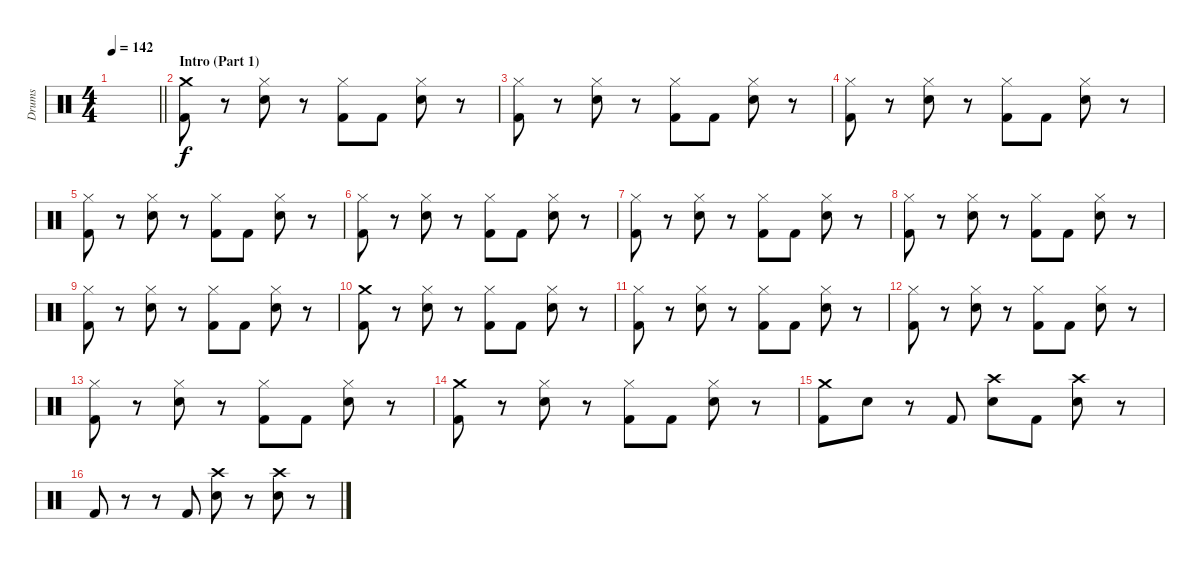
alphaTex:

\track ("Drums" "Drums") {instrument percussion}
\staff {score}
\articulation defaults
\ts (4 4)
\tempo 142
\clef neutral
\barLineRight lightlight
\ks c
|
\section ("" "Intro (Part 1)")
("Crash medium (hit)" "Kick (hit) 2").8 r.8 ("Hi-Hat (closed)" "Electric Snare (hit)").8 r.8 ("Hi-Hat (closed)" "Kick (hit) 2").8 "Kick (hit) 2".8 ("Hi-Hat (closed)" "Electric Snare (hit)").8 r.8 |
("Hi-Hat (closed)" "Kick (hit) 2").8 r.8 ("Hi-Hat (closed)" "Electric Snare (hit)").8 r.8 ("Hi-Hat (closed)" "Kick (hit) 2").8 "Kick (hit) 2".8 ("Hi-Hat (closed)" "Electric Snare (hit)").8 r.8 |
("Hi-Hat (closed)" "Kick (hit) 2").8 r.8 ("Hi-Hat (closed)" "Electric Snare (hit)").8 r.8 ("Hi-Hat (closed)" "Kick (hit) 2").8 "Kick (hit) 2".8 ("Hi-Hat (closed)" "Electric Snare (hit)").8 r.8 |
("Hi-Hat (closed)" "Kick (hit) 2").8 r.8 ("Hi-Hat (closed)" "Electric Snare (hit)").8 r.8 ("Hi-Hat (closed)" "Kick (hit) 2").8 "Kick (hit) 2".8 ("Hi-Hat (closed)" "Electric Snare (hit)").8 r.8 |
("Hi-Hat (closed)" "Kick (hit) 2").8 r.8 ("Hi-Hat (closed)" "Electric Snare (hit)").8 r.8 ("Hi-Hat (closed)" "Kick (hit) 2").8 "Kick (hit) 2".8 ("Hi-Hat (closed)" "Electric Snare (hit)").8 r.8 |
("Hi-Hat (closed)" "Kick (hit) 2").8 r.8 ("Hi-Hat (closed)" "Electric Snare (hit)").8 r.8 ("Hi-Hat (closed)" "Kick (hit) 2").8 "Kick (hit) 2".8 ("Hi-Hat (closed)" "Electric Snare (hit)").8 r.8 |
("Hi-Hat (closed)" "Kick (hit) 2").8 r.8 ("Hi-Hat (closed)" "Electric Snare (hit)").8 r.8 ("Hi-Hat (closed)" "Kick (hit) 2").8 "Kick (hit) 2".8 ("Hi-Hat (closed)" "Electric Snare (hit)").8 r.8 |
("Hi-Hat (closed)" "Kick (hit) 2").8 r.8 ("Hi-Hat (closed)" "Electric Snare (hit)").8 r.8 ("Hi-Hat (closed)" "Kick (hit) 2").8 "Kick (hit) 2".8 ("Hi-Hat (closed)" "Electric Snare (hit)").8 r.8 |
("Crash medium (hit)" "Kick (hit) 2").8 r.8 ("Hi-Hat (closed)" "Electric Snare (hit)").8 r.8 ("Hi-Hat (closed)" "Kick (hit) 2").8 "Kick (hit) 2".8 ("Hi-Hat (closed)" "Electric Snare (hit)").8 r.8 |
("Hi-Hat (closed)" "Kick (hit) 2").8 r.8 ("Hi-Hat (closed)" "Electric Snare (hit)").8 r.8 ("Hi-Hat (closed)" "Kick (hit) 2").8 "Kick (hit) 2".8 ("Hi-Hat (closed)" "Electric Snare (hit)").8 r.8 |
("Hi-Hat (closed)" "Kick (hit) 2").8 r.8 ("Hi-Hat (closed)" "Electric Snare (hit)").8 r.8 ("Hi-Hat (closed)" "Kick (hit) 2").8 "Kick (hit) 2".8 ("Hi-Hat (closed)" "Electric Snare (hit)").8 r.8 |
("Hi-Hat (closed)" "Kick (hit) 2").8 r.8 ("Hi-Hat (closed)" "Electric Snare (hit)").8 r.8 ("Hi-Hat (closed)" "Kick (hit) 2").8 "Kick (hit) 2".8 ("Hi-Hat (closed)" "Electric Snare (hit)").8 r.8 |
("Crash medium (hit)" "Kick (hit) 2").8 r.8 ("Hi-Hat (closed)" "Electric Snare (hit)").8 r.8 ("Hi-Hat (closed)" "Kick (hit) 2").8 "Kick (hit) 2".8 ("Hi-Hat (closed)" "Electric Snare (hit)").8 r.8 |
("Crash medium (hit)" "Kick (hit) 2").8 "Electric Snare (hit)".8 r.8 "Kick (hit) 2".8 ("Crash high (hit)" "Electric Snare (hit)").8 "Kick (hit) 2".8 ("Crash high (hit)" "Electric Snare (hit)").8 r.8 |
"Kick (hit) 2".8 r.8 r.8 "Kick (hit) 2".8 ("Crash high (hit)" "Electric Snare (hit)").8 r.8 ("Crash high (hit)" "Electric Snare (hit)").8 r.8
